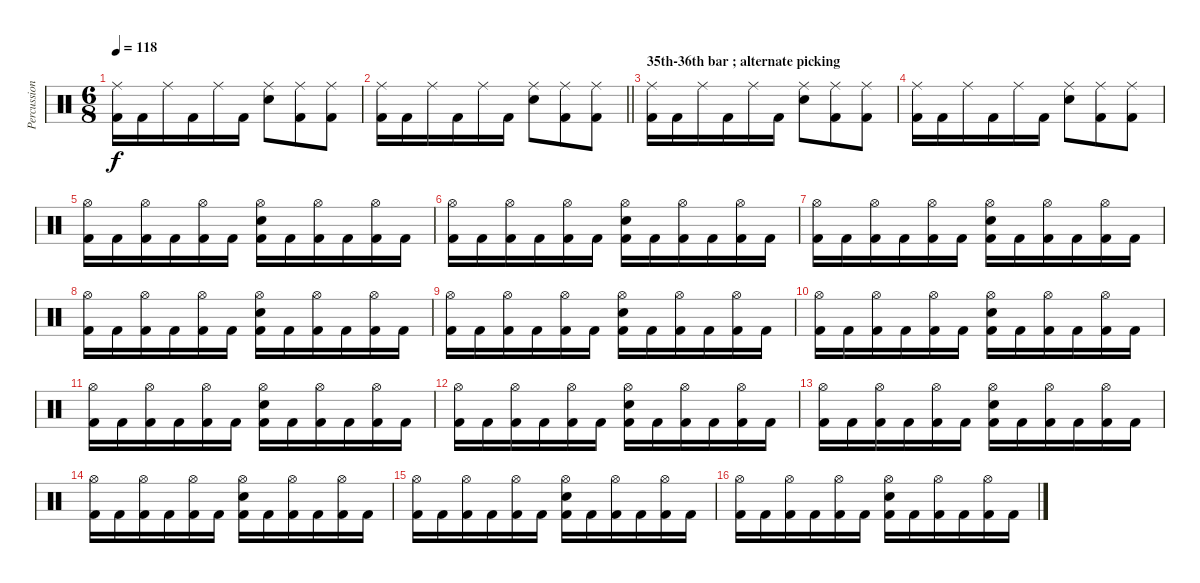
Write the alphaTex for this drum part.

\track ("Percussion" "Percussion") {instrument percussion}
\staff {score}
\articulation defaults
\ts (6 8)
\tempo 118
\clef neutral
\ks c
("Ride (middle)" "Kick (hit) 2").16{dy f} "Kick (hit) 2".16 "Ride (middle)".16 "Kick (hit) 2".16 "Ride (middle)".16 "Kick (hit) 2".16 ("Ride (middle)" "Electric Snare (hit)").8 ("Ride (middle)" "Kick (hit) 2").8 ("Ride (middle)" "Kick (hit) 2").8 |
\barLineRight lightlight
("Ride (middle)" "Kick (hit) 2").16 "Kick (hit) 2".16 "Ride (middle)".16 "Kick (hit) 2".16 "Ride (middle)".16 "Kick (hit) 2".16 ("Ride (middle)" "Electric Snare (hit)").8 ("Ride (middle)" "Kick (hit) 2").8 ("Ride (middle)" "Kick (hit) 2").8 |
\section ("" "35th-36th bar ; alternate picking")
("Ride (middle)" "Kick (hit) 2").16 "Kick (hit) 2".16 "Ride (middle)".16 "Kick (hit) 2".16 "Ride (middle)".16 "Kick (hit) 2".16 ("Ride (middle)" "Electric Snare (hit)").8 ("Ride (middle)" "Kick (hit) 2").8 ("Ride (middle)" "Kick (hit) 2").8 |
("Ride (middle)" "Kick (hit) 2").16 "Kick (hit) 2".16 "Ride (middle)".16 "Kick (hit) 2".16 "Ride (middle)".16 "Kick (hit) 2".16 ("Ride (middle)" "Electric Snare (hit)").8 ("Ride (middle)" "Kick (hit) 2").8 ("Ride (middle)" "Kick (hit) 2").8 |
("Hi-Hat (open)" "Kick (hit) 2").16 "Kick (hit) 2".16 ("Hi-Hat (open)" "Kick (hit) 2").16 "Kick (hit) 2".16 ("Hi-Hat (open)" "Kick (hit) 2").16 "Kick (hit) 2".16 ("Hi-Hat (open)" "Electric Snare (hit)" "Kick (hit) 2").16 "Kick (hit) 2".16 ("Hi-Hat (open)" "Kick (hit) 2").16 "Kick (hit) 2".16 ("Hi-Hat (open)" "Kick (hit) 2").16 "Kick (hit) 2".16 |
("Hi-Hat (open)" "Kick (hit) 2").16 "Kick (hit) 2".16 ("Hi-Hat (open)" "Kick (hit) 2").16 "Kick (hit) 2".16 ("Hi-Hat (open)" "Kick (hit) 2").16 "Kick (hit) 2".16 ("Hi-Hat (open)" "Electric Snare (hit)" "Kick (hit) 2").16 "Kick (hit) 2".16 ("Hi-Hat (open)" "Kick (hit) 2").16 "Kick (hit) 2".16 ("Hi-Hat (open)" "Kick (hit) 2").16 "Kick (hit) 2".16 |
("Hi-Hat (open)" "Kick (hit) 2").16 "Kick (hit) 2".16 ("Hi-Hat (open)" "Kick (hit) 2").16 "Kick (hit) 2".16 ("Hi-Hat (open)" "Kick (hit) 2").16 "Kick (hit) 2".16 ("Hi-Hat (open)" "Electric Snare (hit)" "Kick (hit) 2").16 "Kick (hit) 2".16 ("Hi-Hat (open)" "Kick (hit) 2").16 "Kick (hit) 2".16 ("Hi-Hat (open)" "Kick (hit) 2").16 "Kick (hit) 2".16 |
("Hi-Hat (open)" "Kick (hit) 2").16 "Kick (hit) 2".16 ("Hi-Hat (open)" "Kick (hit) 2").16 "Kick (hit) 2".16 ("Hi-Hat (open)" "Kick (hit) 2").16 "Kick (hit) 2".16 ("Hi-Hat (open)" "Electric Snare (hit)" "Kick (hit) 2").16 "Kick (hit) 2".16 ("Hi-Hat (open)" "Kick (hit) 2").16 "Kick (hit) 2".16 ("Hi-Hat (open)" "Kick (hit) 2").16 "Kick (hit) 2".16 |
("Hi-Hat (open)" "Kick (hit) 2").16 "Kick (hit) 2".16 ("Hi-Hat (open)" "Kick (hit) 2").16 "Kick (hit) 2".16 ("Hi-Hat (open)" "Kick (hit) 2").16 "Kick (hit) 2".16 ("Hi-Hat (open)" "Electric Snare (hit)" "Kick (hit) 2").16 "Kick (hit) 2".16 ("Hi-Hat (open)" "Kick (hit) 2").16 "Kick (hit) 2".16 ("Hi-Hat (open)" "Kick (hit) 2").16 "Kick (hit) 2".16 |
("Hi-Hat (open)" "Kick (hit) 2").16 "Kick (hit) 2".16 ("Hi-Hat (open)" "Kick (hit) 2").16 "Kick (hit) 2".16 ("Hi-Hat (open)" "Kick (hit) 2").16 "Kick (hit) 2".16 ("Hi-Hat (open)" "Electric Snare (hit)" "Kick (hit) 2").16 "Kick (hit) 2".16 ("Hi-Hat (open)" "Kick (hit) 2").16 "Kick (hit) 2".16 ("Hi-Hat (open)" "Kick (hit) 2").16 "Kick (hit) 2".16 |
("Hi-Hat (open)" "Kick (hit) 2").16 "Kick (hit) 2".16 ("Hi-Hat (open)" "Kick (hit) 2").16 "Kick (hit) 2".16 ("Hi-Hat (open)" "Kick (hit) 2").16 "Kick (hit) 2".16 ("Hi-Hat (open)" "Electric Snare (hit)" "Kick (hit) 2").16 "Kick (hit) 2".16 ("Hi-Hat (open)" "Kick (hit) 2").16 "Kick (hit) 2".16 ("Hi-Hat (open)" "Kick (hit) 2").16 "Kick (hit) 2".16 |
("Hi-Hat (open)" "Kick (hit) 2").16 "Kick (hit) 2".16 ("Hi-Hat (open)" "Kick (hit) 2").16 "Kick (hit) 2".16 ("Hi-Hat (open)" "Kick (hit) 2").16 "Kick (hit) 2".16 ("Hi-Hat (open)" "Electric Snare (hit)" "Kick (hit) 2").16 "Kick (hit) 2".16 ("Hi-Hat (open)" "Kick (hit) 2").16 "Kick (hit) 2".16 ("Hi-Hat (open)" "Kick (hit) 2").16 "Kick (hit) 2".16 |
("Hi-Hat (open)" "Kick (hit) 2").16 "Kick (hit) 2".16 ("Hi-Hat (open)" "Kick (hit) 2").16 "Kick (hit) 2".16 ("Hi-Hat (open)" "Kick (hit) 2").16 "Kick (hit) 2".16 ("Hi-Hat (open)" "Electric Snare (hit)" "Kick (hit) 2").16 "Kick (hit) 2".16 ("Hi-Hat (open)" "Kick (hit) 2").16 "Kick (hit) 2".16 ("Hi-Hat (open)" "Kick (hit) 2").16 "Kick (hit) 2".16 |
("Hi-Hat (open)" "Kick (hit) 2").16 "Kick (hit) 2".16 ("Hi-Hat (open)" "Kick (hit) 2").16 "Kick (hit) 2".16 ("Hi-Hat (open)" "Kick (hit) 2").16 "Kick (hit) 2".16 ("Hi-Hat (open)" "Electric Snare (hit)" "Kick (hit) 2").16 "Kick (hit) 2".16 ("Hi-Hat (open)" "Kick (hit) 2").16 "Kick (hit) 2".16 ("Hi-Hat (open)" "Kick (hit) 2").16 "Kick (hit) 2".16 |
("Hi-Hat (open)" "Kick (hit) 2").16 "Kick (hit) 2".16 ("Hi-Hat (open)" "Kick (hit) 2").16 "Kick (hit) 2".16 ("Hi-Hat (open)" "Kick (hit) 2").16 "Kick (hit) 2".16 ("Hi-Hat (open)" "Electric Snare (hit)" "Kick (hit) 2").16 "Kick (hit) 2".16 ("Hi-Hat (open)" "Kick (hit) 2").16 "Kick (hit) 2".16 ("Hi-Hat (open)" "Kick (hit) 2").16 "Kick (hit) 2".16 |
("Hi-Hat (open)" "Kick (hit) 2").16 "Kick (hit) 2".16 ("Hi-Hat (open)" "Kick (hit) 2").16 "Kick (hit) 2".16 ("Hi-Hat (open)" "Kick (hit) 2").16 "Kick (hit) 2".16 ("Hi-Hat (open)" "Electric Snare (hit)" "Kick (hit) 2").16 "Kick (hit) 2".16 ("Hi-Hat (open)" "Kick (hit) 2").16 "Kick (hit) 2".16 ("Hi-Hat (open)" "Kick (hit) 2").16 "Kick (hit) 2".16
